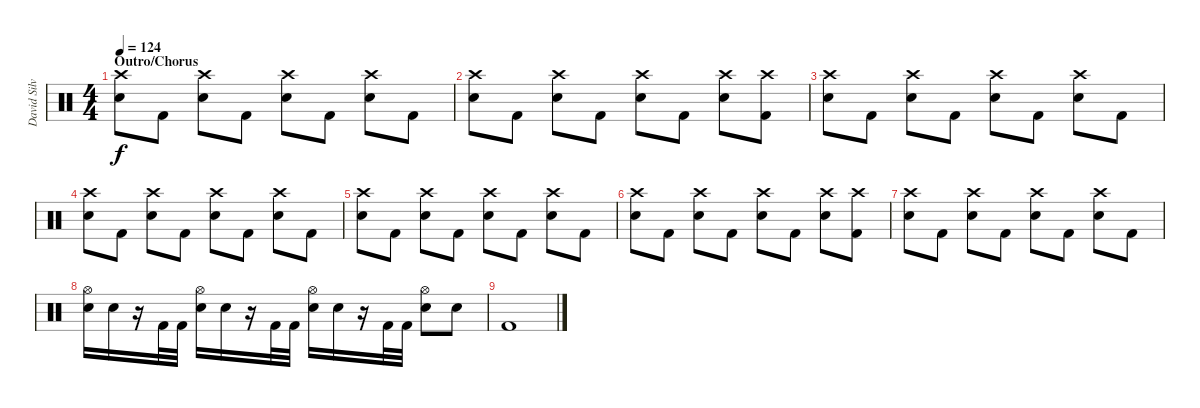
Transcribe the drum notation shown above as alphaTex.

\track ("David Silvera" "David Silv") {instrument percussion}
\staff {score}
\articulation defaults
\ts (4 4)
\section ("" "Outro/Chorus")
\tempo 124
\clef neutral
\ks c
("Crash high (hit)" "Electric Snare (hit)").8{dy f} "Kick (hit) 2".8 ("Crash high (hit)" "Electric Snare (hit)").8 "Kick (hit) 2".8 ("Crash high (hit)" "Electric Snare (hit)").8 "Kick (hit) 2".8 ("Crash high (hit)" "Electric Snare (hit)").8 "Kick (hit) 2".8 |
("Crash high (hit)" "Electric Snare (hit)").8 "Kick (hit) 2".8 ("Crash high (hit)" "Electric Snare (hit)").8 "Kick (hit) 2".8 ("Crash high (hit)" "Electric Snare (hit)").8 "Kick (hit) 2".8 ("Crash high (hit)" "Electric Snare (hit)").8 ("Crash high (hit)" "Kick (hit) 2").8 |
("Crash high (hit)" "Electric Snare (hit)").8 "Kick (hit) 2".8 ("Crash high (hit)" "Electric Snare (hit)").8 "Kick (hit) 2".8 ("Crash high (hit)" "Electric Snare (hit)").8 "Kick (hit) 2".8 ("Crash high (hit)" "Electric Snare (hit)").8 "Kick (hit) 2".8 |
("Crash high (hit)" "Electric Snare (hit)").8 "Kick (hit) 2".8 ("Crash high (hit)" "Electric Snare (hit)").8 "Kick (hit) 2".8 ("Crash high (hit)" "Electric Snare (hit)").8 "Kick (hit) 2".8 ("Crash high (hit)" "Electric Snare (hit)").8 "Kick (hit) 2".8 |
("Crash high (hit)" "Electric Snare (hit)").8 "Kick (hit) 2".8 ("Crash high (hit)" "Electric Snare (hit)").8 "Kick (hit) 2".8 ("Crash high (hit)" "Electric Snare (hit)").8 "Kick (hit) 2".8 ("Crash high (hit)" "Electric Snare (hit)").8 "Kick (hit) 2".8 |
("Crash high (hit)" "Electric Snare (hit)").8 "Kick (hit) 2".8 ("Crash high (hit)" "Electric Snare (hit)").8 "Kick (hit) 2".8 ("Crash high (hit)" "Electric Snare (hit)").8 "Kick (hit) 2".8 ("Crash high (hit)" "Electric Snare (hit)").8 ("Crash high (hit)" "Kick (hit) 2").8 |
("Crash high (hit)" "Electric Snare (hit)").8 "Kick (hit) 2".8 ("Crash high (hit)" "Electric Snare (hit)").8 "Kick (hit) 2".8 ("Crash high (hit)" "Electric Snare (hit)").8 "Kick (hit) 2".8 ("Crash high (hit)" "Electric Snare (hit)").8 "Kick (hit) 2".8 |
("Hi-Hat (open)" "Electric Snare (hit)").16 "Electric Snare (hit)".16 r.16 "Kick (hit) 2".32 "Kick (hit) 2".32 ("Hi-Hat (open)" "Electric Snare (hit)").16 "Electric Snare (hit)".16 r.16 "Kick (hit) 2".32 "Kick (hit) 2".32 ("Hi-Hat (open)" "Electric Snare (hit)").16 "Electric Snare (hit)".16 r.16 "Kick (hit) 2".32 "Kick (hit) 2".32 ("Hi-Hat (open)" "Electric Snare (hit)").8 "Electric Snare (hit)".8 |
"Kick (hit) 2".1
